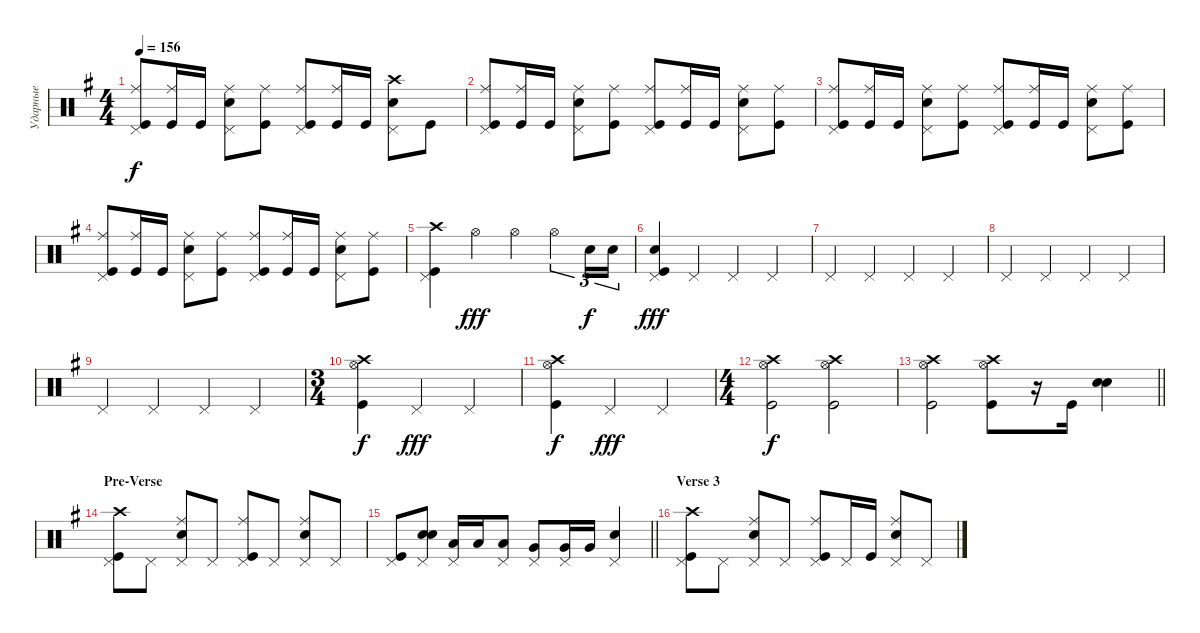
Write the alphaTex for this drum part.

\track ("Ударные" "Ударные") {instrument percussion}
\staff {score}
\articulation defaults
\ts (4 4)
\tempo 156
\clef neutral
\ks eminor
("Ride (middle)" "Kick (hit)" "Pedal Hi-Hat (hit)").8{dy f} ("Kick (hit)" "Ride (middle)").16 "Kick (hit)".16 ("Snare (hit) 2" "Ride (middle)" "Pedal Hi-Hat (hit)").8 ("Ride (middle)" "Kick (hit)").8 ("Ride (middle)" "Kick (hit)" "Pedal Hi-Hat (hit)").8 ("Kick (hit)" "Ride (middle)").16 "Kick (hit)".16 ("Snare (hit) 2" "Crash high (hit)" "Pedal Hi-Hat (hit)").8 "Kick (hit)".8 |
("Ride (middle)" "Kick (hit)" "Pedal Hi-Hat (hit)").8 ("Kick (hit)" "Ride (middle)").16 "Kick (hit)".16 ("Snare (hit) 2" "Ride (middle)" "Pedal Hi-Hat (hit)").8 ("Ride (middle)" "Kick (hit)").8 ("Ride (middle)" "Kick (hit)" "Pedal Hi-Hat (hit)").8 ("Kick (hit)" "Ride (middle)").16 "Kick (hit)".16 ("Snare (hit) 2" "Ride (middle)" "Pedal Hi-Hat (hit)").8 ("Ride (middle)" "Kick (hit)").8 |
("Ride (middle)" "Kick (hit)" "Pedal Hi-Hat (hit)").8 ("Kick (hit)" "Ride (middle)").16 "Kick (hit)".16 ("Snare (hit) 2" "Ride (middle)" "Pedal Hi-Hat (hit)").8 ("Ride (middle)" "Kick (hit)").8 ("Ride (middle)" "Kick (hit)" "Pedal Hi-Hat (hit)").8 ("Kick (hit)" "Ride (middle)").16 "Kick (hit)".16 ("Snare (hit) 2" "Ride (middle)" "Pedal Hi-Hat (hit)").8 ("Ride (middle)" "Kick (hit)").8 |
("Ride (middle)" "Kick (hit)" "Pedal Hi-Hat (hit)").8 ("Kick (hit)" "Ride (middle)").16 "Kick (hit)".16 ("Snare (hit) 2" "Ride (middle)" "Pedal Hi-Hat (hit)").8 ("Ride (middle)" "Kick (hit)").8 ("Ride (middle)" "Kick (hit)" "Pedal Hi-Hat (hit)").8 ("Kick (hit)" "Ride (middle)").16 "Kick (hit)".16 ("Snare (hit) 2" "Ride (middle)" "Pedal Hi-Hat (hit)").8 ("Ride (middle)" "Kick (hit)").8 |
("Kick (hit)" "Crash high (hit)" "Pedal Hi-Hat (hit)").4 "Hi-Hat (open)".4{dy fff} "Hi-Hat (open)".4 "Hi-Hat (open)".4{tu (3 2)} "Snare (hit) 2".16{tu (3 2) dy f} "Snare (hit) 2".16{tu (3 2)} |
("Snare (hit) 2" "Kick (hit)" "Pedal Hi-Hat (hit)").4{dy fff} "Pedal Hi-Hat (hit)".4 "Pedal Hi-Hat (hit)".4 "Pedal Hi-Hat (hit)".4 |
"Pedal Hi-Hat (hit)".4 "Pedal Hi-Hat (hit)".4 "Pedal Hi-Hat (hit)".4 "Pedal Hi-Hat (hit)".4 |
"Pedal Hi-Hat (hit)".4 "Pedal Hi-Hat (hit)".4 "Pedal Hi-Hat (hit)".4 "Pedal Hi-Hat (hit)".4 |
"Pedal Hi-Hat (hit)".4 "Pedal Hi-Hat (hit)".4 "Pedal Hi-Hat (hit)".4 "Pedal Hi-Hat (hit)".4 |
\ts (3 4)
("Kick (hit)" "Hi-Hat (open)" "Crash high (hit)").4{dy f} "Pedal Hi-Hat (hit)".4{dy fff} "Pedal Hi-Hat (hit)".4 |
("Kick (hit)" "Hi-Hat (open)" "Crash high (hit)").4{dy f} "Pedal Hi-Hat (hit)".4{dy fff} "Pedal Hi-Hat (hit)".4 |
\ts (4 4)
("Kick (hit)" "Crash high (hit)" "Hi-Hat (open)").2{dy f} ("Kick (hit)" "Crash high (hit)" "Hi-Hat (open)").2 |
\barLineRight lightlight
("Kick (hit)" "Crash high (hit)" "Hi-Hat (open)").2 ("Kick (hit)" "Crash high (hit)" "Hi-Hat (open)").8 r.16 "Kick (hit)".16 ("Snare (hit) 2" "Snare (hit) 2").4{bd 480} |
\section ("" "Pre-Verse")
("Kick (hit)" "Pedal Hi-Hat (hit)" "Crash high (hit)").8 "Pedal Hi-Hat (hit)".8 ("Snare (hit) 2" "Ride (middle)" "Pedal Hi-Hat (hit)").8 "Pedal Hi-Hat (hit)".8 ("Ride (middle)" "Kick (hit)" "Pedal Hi-Hat (hit)").8 "Pedal Hi-Hat (hit)".8 ("Ride (middle)" "Snare (hit) 2" "Pedal Hi-Hat (hit)").8 "Pedal Hi-Hat (hit)".8 |
\barLineRight lightlight
("Kick (hit)" "Pedal Hi-Hat (hit)").8 ("Snare (hit) 2" "Snare (hit) 2" "Pedal Hi-Hat (hit)").8{bd 480} ("Low Tom (hit)" "Pedal Hi-Hat (hit)").16 "Low Tom (hit)".16 ("Low Tom (hit)" "Pedal Hi-Hat (hit)").8 ("Very Low Tom (hit)" "Pedal Hi-Hat (hit)").8 ("Very Low Tom (hit)" "Pedal Hi-Hat (hit)").16 "Very Low Tom (hit)".16 ("Snare (hit) 2" "Pedal Hi-Hat (hit)").4 |
\section ("" "Verse 3")
("Kick (hit)" "Crash high (hit)" "Pedal Hi-Hat (hit)").8 "Pedal Hi-Hat (hit)".8 ("Snare (hit) 2" "Ride (middle)" "Pedal Hi-Hat (hit)").8 "Pedal Hi-Hat (hit)".8 ("Kick (hit)" "Ride (middle)" "Pedal Hi-Hat (hit)").8 "Pedal Hi-Hat (hit)".16 "Kick (hit)".16 ("Snare (hit) 2" "Ride (middle)" "Pedal Hi-Hat (hit)").8 "Pedal Hi-Hat (hit)".8
